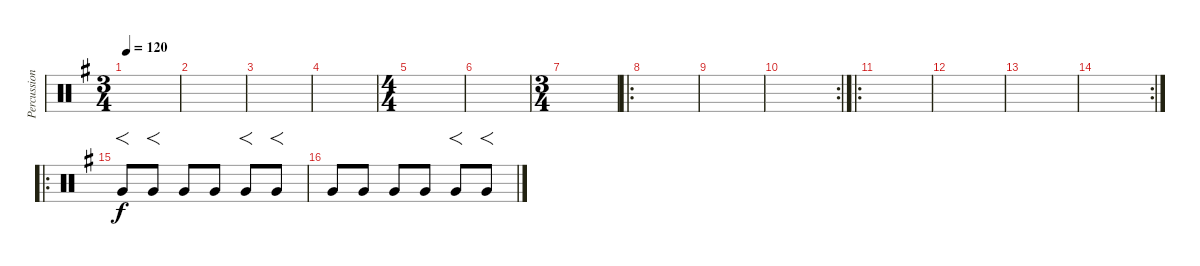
\track ("Percussion" "Percussion") {instrument percussion}
\staff {score}
\articulation defaults
\ts (3 4)
\tempo 120
\clef neutral
\ks eminor
|
|
|
|
\ts (4 4)
|
|
\ts (3 4)
|
\ro
|
|
\rc 2
|
\ro
|
|
|
\rc 2
|
\ro "Very Low Tom (hit)".8{f} "Very Low Tom (hit)".8{f} "Very Low Tom (hit)".8 "Very Low Tom (hit)".8 "Very Low Tom (hit)".8{f} "Very Low Tom (hit)".8{f}
|
"Very Low Tom (hit)".8 "Very Low Tom (hit)".8 "Very Low Tom (hit)".8 "Very Low Tom (hit)".8 "Very Low Tom (hit)".8{f} "Very Low Tom (hit)".8{f}
